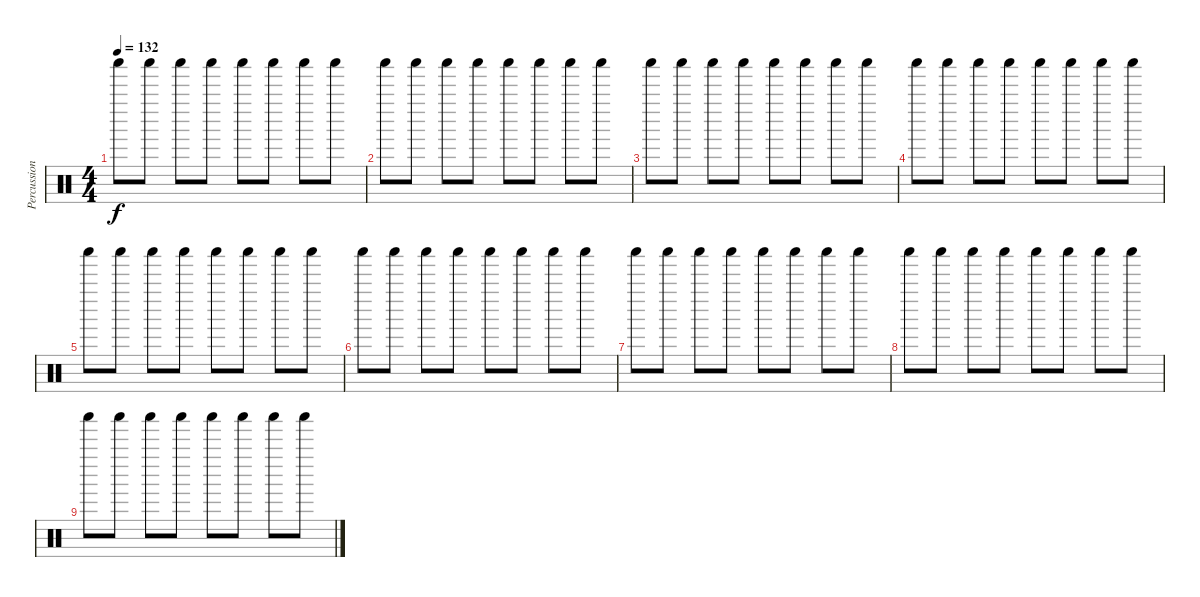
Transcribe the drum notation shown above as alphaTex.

\track ("Percussion" "Percussion") {instrument percussion}
\staff {score}
\articulation defaults
\ts (4 4)
\tempo 132
\clef neutral
\ks c "Shaker (hit)".8{dy f} "Shaker (hit)".8 "Shaker (hit)".8 "Shaker (hit)".8 "Shaker (hit)".8 "Shaker (hit)".8 "Shaker (hit)".8 "Shaker (hit)".8
|
"Shaker (hit)".8 "Shaker (hit)".8 "Shaker (hit)".8 "Shaker (hit)".8 "Shaker (hit)".8 "Shaker (hit)".8 "Shaker (hit)".8 "Shaker (hit)".8 |
"Shaker (hit)".8 "Shaker (hit)".8 "Shaker (hit)".8 "Shaker (hit)".8 "Shaker (hit)".8 "Shaker (hit)".8 "Shaker (hit)".8 "Shaker (hit)".8 |
"Shaker (hit)".8 "Shaker (hit)".8 "Shaker (hit)".8 "Shaker (hit)".8 "Shaker (hit)".8 "Shaker (hit)".8 "Shaker (hit)".8 "Shaker (hit)".8 |
"Shaker (hit)".8 "Shaker (hit)".8 "Shaker (hit)".8 "Shaker (hit)".8 "Shaker (hit)".8 "Shaker (hit)".8 "Shaker (hit)".8 "Shaker (hit)".8 |
"Shaker (hit)".8 "Shaker (hit)".8 "Shaker (hit)".8 "Shaker (hit)".8 "Shaker (hit)".8 "Shaker (hit)".8 "Shaker (hit)".8 "Shaker (hit)".8 |
"Shaker (hit)".8 "Shaker (hit)".8 "Shaker (hit)".8 "Shaker (hit)".8 "Shaker (hit)".8 "Shaker (hit)".8 "Shaker (hit)".8 "Shaker (hit)".8 |
"Shaker (hit)".8 "Shaker (hit)".8 "Shaker (hit)".8 "Shaker (hit)".8 "Shaker (hit)".8 "Shaker (hit)".8 "Shaker (hit)".8 "Shaker (hit)".8 |
"Shaker (hit)".8 "Shaker (hit)".8 "Shaker (hit)".8 "Shaker (hit)".8 "Shaker (hit)".8 "Shaker (hit)".8 "Shaker (hit)".8 "Shaker (hit)".8
